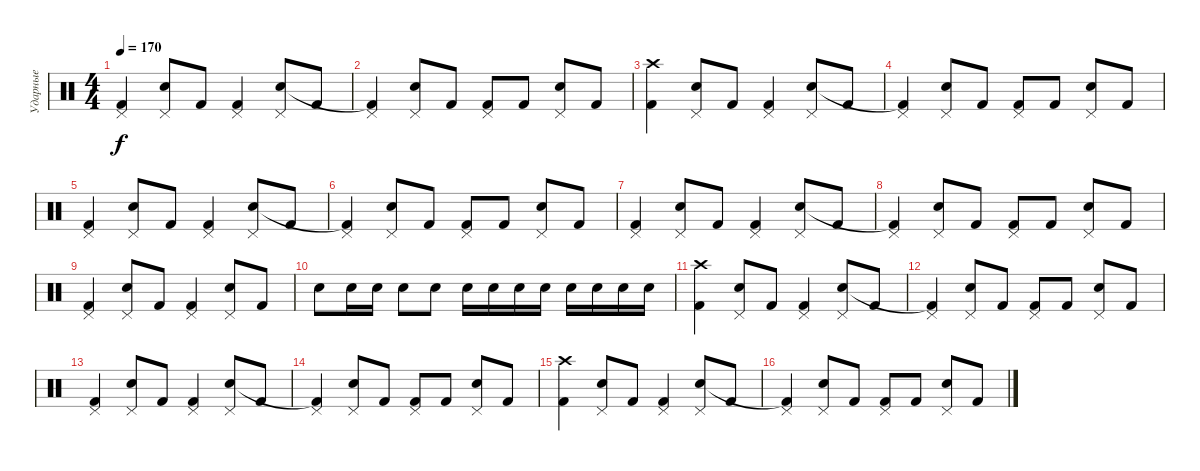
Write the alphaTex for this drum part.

\track ("Ударные" "Ударные") {instrument percussion}
\staff {score}
\articulation defaults
\ts (4 4)
\tempo 170
\clef neutral
\ks c
("Pedal Hi-Hat (hit)" "Kick (hit) 2").4{dy f} ("Pedal Hi-Hat (hit)" "Snare (hit) 2").8 "Kick (hit) 2".8 ("Pedal Hi-Hat (hit)" "Kick (hit) 2").4 ("Pedal Hi-Hat (hit)" "Snare (hit) 2").8 "Kick (hit) 2".8 |
("Pedal Hi-Hat (hit)" "Kick (hit) 2"{t}).4 ("Pedal Hi-Hat (hit)" "Snare (hit) 2").8 "Kick (hit) 2".8 ("Pedal Hi-Hat (hit)" "Kick (hit) 2").8 "Kick (hit) 2".8 ("Pedal Hi-Hat (hit)" "Snare (hit) 2").8 "Kick (hit) 2".8 |
("Crash high (hit)" "Kick (hit) 2").4 ("Pedal Hi-Hat (hit)" "Snare (hit) 2").8 "Kick (hit) 2".8 ("Pedal Hi-Hat (hit)" "Kick (hit) 2").4 ("Pedal Hi-Hat (hit)" "Snare (hit) 2").8 "Kick (hit) 2".8 |
("Pedal Hi-Hat (hit)" "Kick (hit) 2"{t}).4 ("Pedal Hi-Hat (hit)" "Snare (hit) 2").8 "Kick (hit) 2".8 ("Pedal Hi-Hat (hit)" "Kick (hit) 2").8 "Kick (hit) 2".8 ("Pedal Hi-Hat (hit)" "Snare (hit) 2").8 "Kick (hit) 2".8 |
("Pedal Hi-Hat (hit)" "Kick (hit) 2").4 ("Pedal Hi-Hat (hit)" "Snare (hit) 2").8 "Kick (hit) 2".8 ("Pedal Hi-Hat (hit)" "Kick (hit) 2").4 ("Pedal Hi-Hat (hit)" "Snare (hit) 2").8 "Kick (hit) 2".8 |
("Pedal Hi-Hat (hit)" "Kick (hit) 2"{t}).4 ("Pedal Hi-Hat (hit)" "Snare (hit) 2").8 "Kick (hit) 2".8 ("Pedal Hi-Hat (hit)" "Kick (hit) 2").8 "Kick (hit) 2".8 ("Pedal Hi-Hat (hit)" "Snare (hit) 2").8 "Kick (hit) 2".8 |
("Pedal Hi-Hat (hit)" "Kick (hit) 2").4 ("Pedal Hi-Hat (hit)" "Snare (hit) 2").8 "Kick (hit) 2".8 ("Pedal Hi-Hat (hit)" "Kick (hit) 2").4 ("Pedal Hi-Hat (hit)" "Snare (hit) 2").8 "Kick (hit) 2".8 |
("Pedal Hi-Hat (hit)" "Kick (hit) 2"{t}).4 ("Pedal Hi-Hat (hit)" "Snare (hit) 2").8 "Kick (hit) 2".8 ("Pedal Hi-Hat (hit)" "Kick (hit) 2").8 "Kick (hit) 2".8 ("Pedal Hi-Hat (hit)" "Snare (hit) 2").8 "Kick (hit) 2".8 |
("Pedal Hi-Hat (hit)" "Kick (hit) 2").4 ("Pedal Hi-Hat (hit)" "Snare (hit) 2").8 "Kick (hit) 2".8 ("Pedal Hi-Hat (hit)" "Kick (hit) 2").4 ("Pedal Hi-Hat (hit)" "Snare (hit) 2").8 "Kick (hit) 2".8 |
"Snare (hit) 2".8 "Snare (hit) 2".16 "Snare (hit) 2".16 "Snare (hit) 2".8 "Snare (hit) 2".8 "Snare (hit) 2".16 "Snare (hit) 2".16 "Snare (hit) 2".16 "Snare (hit) 2".16 "Snare (hit) 2".16 "Snare (hit) 2".16 "Snare (hit) 2".16 "Snare (hit) 2".16 |
("Crash high (hit)" "Kick (hit) 2").4 ("Pedal Hi-Hat (hit)" "Snare (hit) 2").8 "Kick (hit) 2".8 ("Pedal Hi-Hat (hit)" "Kick (hit) 2").4 ("Pedal Hi-Hat (hit)" "Snare (hit) 2").8 "Kick (hit) 2".8 |
("Pedal Hi-Hat (hit)" "Kick (hit) 2"{t}).4 ("Pedal Hi-Hat (hit)" "Snare (hit) 2").8 "Kick (hit) 2".8 ("Pedal Hi-Hat (hit)" "Kick (hit) 2").8 "Kick (hit) 2".8 ("Pedal Hi-Hat (hit)" "Snare (hit) 2").8 "Kick (hit) 2".8 |
("Pedal Hi-Hat (hit)" "Kick (hit) 2").4 ("Pedal Hi-Hat (hit)" "Snare (hit) 2").8 "Kick (hit) 2".8 ("Pedal Hi-Hat (hit)" "Kick (hit) 2").4 ("Pedal Hi-Hat (hit)" "Snare (hit) 2").8 "Kick (hit) 2".8 |
("Pedal Hi-Hat (hit)" "Kick (hit) 2"{t}).4 ("Pedal Hi-Hat (hit)" "Snare (hit) 2").8 "Kick (hit) 2".8 ("Pedal Hi-Hat (hit)" "Kick (hit) 2").8 "Kick (hit) 2".8 ("Pedal Hi-Hat (hit)" "Snare (hit) 2").8 "Kick (hit) 2".8 |
("Crash high (hit)" "Kick (hit) 2").4 ("Pedal Hi-Hat (hit)" "Snare (hit) 2").8 "Kick (hit) 2".8 ("Pedal Hi-Hat (hit)" "Kick (hit) 2").4 ("Pedal Hi-Hat (hit)" "Snare (hit) 2").8 "Kick (hit) 2".8 |
("Pedal Hi-Hat (hit)" "Kick (hit) 2"{t}).4 ("Pedal Hi-Hat (hit)" "Snare (hit) 2").8 "Kick (hit) 2".8 ("Pedal Hi-Hat (hit)" "Kick (hit) 2").8 "Kick (hit) 2".8 ("Pedal Hi-Hat (hit)" "Snare (hit) 2").8 "Kick (hit) 2".8
